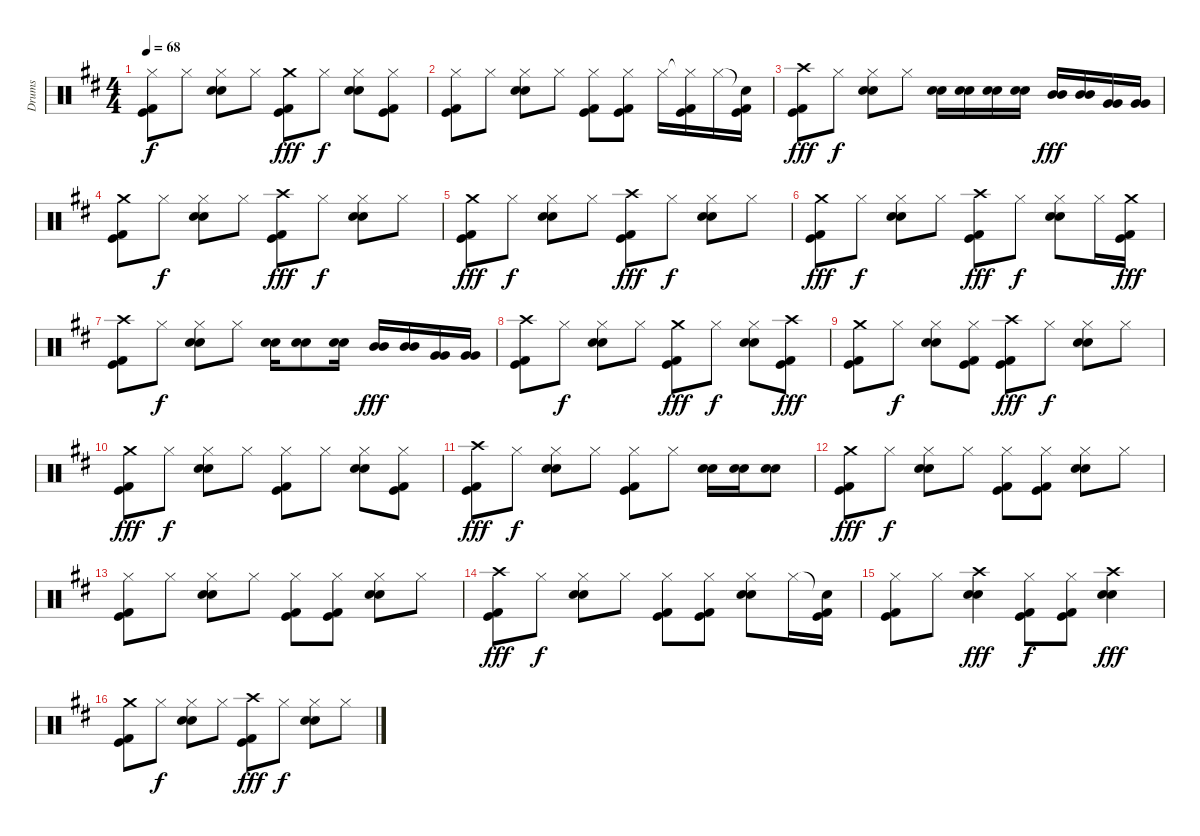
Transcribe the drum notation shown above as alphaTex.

\track ("Drums" "Drums") {instrument percussion}
\staff {score}
\articulation defaults
\ts (4 4)
\tempo 68
\clef neutral
\ks d
("Hi-Hat (closed)" "Kick (hit)" "Kick (hit) 2").8{dy f} "Hi-Hat (closed)".8 ("Hi-Hat (closed)" "Electric Snare (hit)" "Snare (hit) 2").8 "Hi-Hat (closed)".8 ("Crash medium (hit)" "Kick (hit)" "Kick (hit) 2").8{dy fff} "Hi-Hat (closed)".8{dy f} ("Hi-Hat (closed)" "Electric Snare (hit)" "Snare (hit) 2").8 ("Hi-Hat (closed)" "Kick (hit)" "Kick (hit) 2").8 |
("Hi-Hat (closed)" "Kick (hit)" "Kick (hit) 2").8 "Hi-Hat (closed)".8 ("Hi-Hat (closed)" "Electric Snare (hit)" "Snare (hit) 2").8 "Hi-Hat (closed)".8 ("Hi-Hat (closed)" "Kick (hit)" "Kick (hit) 2").8 ("Hi-Hat (closed)" "Kick (hit)" "Kick (hit) 2").8 "Hi-Hat (closed)".16 ("Hi-Hat (closed)"{t} "Kick (hit)" "Kick (hit) 2").16 "Hi-Hat (closed)".16 ("Snare (hit)"{t} "Kick (hit)" "Kick (hit) 2").16 |
("Crash high (hit)" "Kick (hit)" "Kick (hit) 2").8{dy fff} "Hi-Hat (closed)".8{dy f} ("Hi-Hat (closed)" "Electric Snare (hit)" "Snare (hit) 2").8 "Hi-Hat (closed)".8 ("Electric Snare (hit)" "Snare (hit) 2").16 ("Electric Snare (hit)" "Snare (hit) 2").16 ("Electric Snare (hit)" "Snare (hit) 2").16 ("Electric Snare (hit)" "Snare (hit) 2").16 ("Mid Tom (hit)" "Mid Tom (hit)").16{dy fff} ("Mid Tom (hit)" "Mid Tom (hit)").16 ("Very Low Tom (hit)" "Very Low Tom (hit)").16 ("Very Low Tom (hit)" "Very Low Tom (hit)").16 |
("Crash medium (hit)" "Kick (hit)" "Kick (hit) 2").8 "Hi-Hat (closed)".8{dy f} ("Hi-Hat (closed)" "Electric Snare (hit)" "Snare (hit) 2").8 "Hi-Hat (closed)".8 ("Crash high (hit)" "Kick (hit)" "Kick (hit) 2").8{dy fff} "Hi-Hat (closed)".8{dy f} ("Hi-Hat (closed)" "Electric Snare (hit)" "Snare (hit) 2").8 "Hi-Hat (closed)".8 |
("Crash medium (hit)" "Kick (hit)" "Kick (hit) 2").8{dy fff} "Hi-Hat (closed)".8{dy f} ("Hi-Hat (closed)" "Electric Snare (hit)" "Snare (hit) 2").8 "Hi-Hat (closed)".8 ("Crash high (hit)" "Kick (hit)" "Kick (hit) 2").8{dy fff} "Hi-Hat (closed)".8{dy f} ("Hi-Hat (closed)" "Electric Snare (hit)" "Snare (hit) 2").8 "Hi-Hat (closed)".8 |
("Crash medium (hit)" "Kick (hit)" "Kick (hit) 2").8{dy fff} "Hi-Hat (closed)".8{dy f} ("Hi-Hat (closed)" "Electric Snare (hit)" "Snare (hit) 2").8 "Hi-Hat (closed)".8 ("Crash high (hit)" "Kick (hit)" "Kick (hit) 2").8{dy fff} "Hi-Hat (closed)".8{dy f} ("Hi-Hat (closed)" "Electric Snare (hit)" "Snare (hit) 2").8 "Hi-Hat (closed)".16 ("Crash medium (hit)" "Kick (hit)" "Kick (hit) 2").16{dy fff} |
("Crash high (hit)" "Kick (hit)" "Kick (hit) 2").8 "Hi-Hat (closed)".8{dy f} ("Hi-Hat (closed)" "Electric Snare (hit)" "Snare (hit) 2").8 "Hi-Hat (closed)".8 ("Electric Snare (hit)" "Snare (hit) 2").16 ("Electric Snare (hit)" "Snare (hit) 2").8 ("Electric Snare (hit)" "Snare (hit) 2").16 ("Mid Tom (hit)" "Mid Tom (hit)").16{dy fff} ("Mid Tom (hit)" "Mid Tom (hit)").16 ("Very Low Tom (hit)" "Very Low Tom (hit)").16 ("Very Low Tom (hit)" "Very Low Tom (hit)").16 |
("Crash high (hit)" "Kick (hit)" "Kick (hit) 2").8 "Hi-Hat (closed)".8{dy f} ("Hi-Hat (closed)" "Electric Snare (hit)" "Snare (hit) 2").8 "Hi-Hat (closed)".8 ("Crash medium (hit)" "Kick (hit)" "Kick (hit) 2").8{dy fff} "Hi-Hat (closed)".8{dy f} ("Hi-Hat (closed)" "Electric Snare (hit)" "Snare (hit) 2").8 ("Crash high (hit)" "Kick (hit)" "Kick (hit) 2").8{dy fff} |
("Crash medium (hit)" "Kick (hit)" "Kick (hit) 2").8 "Hi-Hat (closed)".8{dy f} ("Hi-Hat (closed)" "Electric Snare (hit)" "Snare (hit) 2").8 ("Hi-Hat (closed)" "Kick (hit)" "Kick (hit) 2").8 ("Crash high (hit)" "Kick (hit)" "Kick (hit) 2").8{dy fff} "Hi-Hat (closed)".8{dy f} ("Hi-Hat (closed)" "Electric Snare (hit)" "Snare (hit) 2").8 "Hi-Hat (closed)".8 |
("Crash medium (hit)" "Kick (hit)" "Kick (hit) 2").8{dy fff} "Hi-Hat (closed)".8{dy f} ("Hi-Hat (closed)" "Electric Snare (hit)" "Snare (hit) 2").8 "Hi-Hat (closed)".8 ("Hi-Hat (closed)" "Kick (hit)" "Kick (hit) 2").8 "Hi-Hat (closed)".8 ("Hi-Hat (closed)" "Electric Snare (hit)" "Snare (hit) 2").8 ("Hi-Hat (closed)" "Kick (hit)" "Kick (hit) 2").8 |
("Crash high (hit)" "Kick (hit)" "Kick (hit) 2").8{dy fff} "Hi-Hat (closed)".8{dy f} ("Hi-Hat (closed)" "Electric Snare (hit)" "Snare (hit) 2").8 "Hi-Hat (closed)".8 ("Hi-Hat (closed)" "Kick (hit)" "Kick (hit) 2").8 "Hi-Hat (closed)".8 ("Electric Snare (hit)" "Snare (hit) 2").16 ("Electric Snare (hit)" "Snare (hit) 2").16 ("Electric Snare (hit)" "Snare (hit) 2").8 |
("Crash medium (hit)" "Kick (hit)" "Kick (hit) 2").8{dy fff} "Hi-Hat (closed)".8{dy f} ("Hi-Hat (closed)" "Electric Snare (hit)" "Snare (hit) 2").8 "Hi-Hat (closed)".8 ("Hi-Hat (closed)" "Kick (hit)" "Kick (hit) 2").8 ("Hi-Hat (closed)" "Kick (hit)" "Kick (hit) 2").8 ("Hi-Hat (closed)" "Electric Snare (hit)" "Snare (hit) 2").8 "Hi-Hat (closed)".8 |
("Hi-Hat (closed)" "Kick (hit)" "Kick (hit) 2").8 "Hi-Hat (closed)".8 ("Hi-Hat (closed)" "Electric Snare (hit)" "Snare (hit) 2").8 "Hi-Hat (closed)".8 ("Hi-Hat (closed)" "Kick (hit)" "Kick (hit) 2").8 ("Hi-Hat (closed)" "Kick (hit)" "Kick (hit) 2").8 ("Hi-Hat (closed)" "Electric Snare (hit)" "Snare (hit) 2").8 "Hi-Hat (closed)".8 |
("Crash high (hit)" "Kick (hit)" "Kick (hit) 2").8{dy fff} "Hi-Hat (closed)".8{dy f} ("Hi-Hat (closed)" "Electric Snare (hit)" "Snare (hit) 2").8 "Hi-Hat (closed)".8 ("Hi-Hat (closed)" "Kick (hit)" "Kick (hit) 2").8 ("Hi-Hat (closed)" "Kick (hit)" "Kick (hit) 2").8 ("Hi-Hat (closed)" "Electric Snare (hit)" "Snare (hit) 2").8 "Hi-Hat (closed)".16 ("Snare (hit)"{t} "Kick (hit)" "Kick (hit) 2").16 |
("Hi-Hat (closed)" "Kick (hit)" "Kick (hit) 2").8 "Hi-Hat (closed)".8 ("Crash high (hit)" "Electric Snare (hit)" "Snare (hit) 2").4{dy fff} ("Hi-Hat (closed)" "Kick (hit)" "Kick (hit) 2").8{dy f} ("Hi-Hat (closed)" "Kick (hit)" "Kick (hit) 2").8 ("Crash high (hit)" "Electric Snare (hit)" "Snare (hit) 2").4{dy fff} |
("Crash medium (hit)" "Kick (hit)" "Kick (hit) 2").8 "Hi-Hat (closed)".8{dy f} ("Hi-Hat (closed)" "Electric Snare (hit)" "Snare (hit) 2").8 "Hi-Hat (closed)".8 ("Crash high (hit)" "Kick (hit)" "Kick (hit) 2").8{dy fff} "Hi-Hat (closed)".8{dy f} ("Hi-Hat (closed)" "Electric Snare (hit)" "Snare (hit) 2").8 "Hi-Hat (closed)".8
